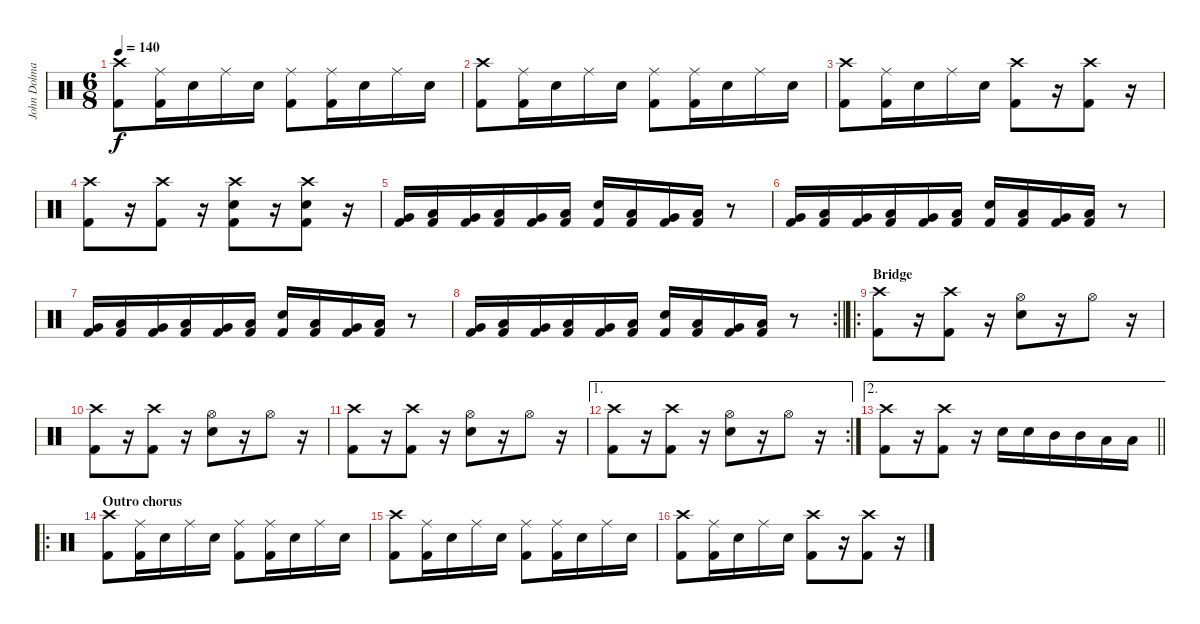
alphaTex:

\track ("John Dolmayan" "John Dolma") {instrument percussion}
\staff {score}
\articulation defaults
\ts (6 8)
\tempo 140
\clef neutral
\ks c
("Crash high (hit)" "Kick (hit) 2").8{dy f} ("Ride (middle)" "Kick (hit) 2").16 "Electric Snare (hit)".16 "Ride (middle)".16 "Electric Snare (hit)".16 ("Ride (middle)" "Kick (hit) 2").8 ("Ride (middle)" "Kick (hit) 2").16 "Electric Snare (hit)".16 "Ride (middle)".16 "Electric Snare (hit)".16 |
("Crash high (hit)" "Kick (hit) 2").8 ("Ride (middle)" "Kick (hit) 2").16 "Electric Snare (hit)".16 "Ride (middle)".16 "Electric Snare (hit)".16 ("Ride (middle)" "Kick (hit) 2").8 ("Ride (middle)" "Kick (hit) 2").16 "Electric Snare (hit)".16 "Ride (middle)".16 "Electric Snare (hit)".16 |
("Crash high (hit)" "Kick (hit) 2").8 ("Ride (middle)" "Kick (hit) 2").16 "Electric Snare (hit)".16 "Ride (middle)".16 "Electric Snare (hit)".16 ("Crash high (hit)" "Kick (hit) 2").8 r.16 ("Crash high (hit)" "Kick (hit) 2").8 r.16 |
("Crash high (hit)" "Kick (hit) 2").8 r.16 ("Crash high (hit)" "Kick (hit) 2").8 r.16 ("Electric Snare (hit)" "Crash high (hit)" "Kick (hit) 2").8 r.16 ("Electric Snare (hit)" "Crash high (hit)" "Kick (hit) 2").8 r.16 |
("Very Low Tom (hit)" "Kick (hit) 2").16 ("Low Tom (hit)" "Kick (hit) 2").16 ("Very Low Tom (hit)" "Kick (hit) 2").16 ("Low Tom (hit)" "Kick (hit) 2").16 ("Very Low Tom (hit)" "Kick (hit) 2").16 ("Low Tom (hit)" "Kick (hit) 2").16 ("Electric Snare (hit)" "Kick (hit) 2").16 ("Low Tom (hit)" "Kick (hit) 2").16 ("Very Low Tom (hit)" "Kick (hit) 2").16 ("Low Tom (hit)" "Kick (hit) 2").16 r.8 |
("Very Low Tom (hit)" "Kick (hit) 2").16 ("Low Tom (hit)" "Kick (hit) 2").16 ("Very Low Tom (hit)" "Kick (hit) 2").16 ("Low Tom (hit)" "Kick (hit) 2").16 ("Very Low Tom (hit)" "Kick (hit) 2").16 ("Low Tom (hit)" "Kick (hit) 2").16 ("Electric Snare (hit)" "Kick (hit) 2").16 ("Low Tom (hit)" "Kick (hit) 2").16 ("Very Low Tom (hit)" "Kick (hit) 2").16 ("Low Tom (hit)" "Kick (hit) 2").16 r.8 |
("Very Low Tom (hit)" "Kick (hit) 2").16 ("Low Tom (hit)" "Kick (hit) 2").16 ("Very Low Tom (hit)" "Kick (hit) 2").16 ("Low Tom (hit)" "Kick (hit) 2").16 ("Very Low Tom (hit)" "Kick (hit) 2").16 ("Low Tom (hit)" "Kick (hit) 2").16 ("Electric Snare (hit)" "Kick (hit) 2").16 ("Low Tom (hit)" "Kick (hit) 2").16 ("Very Low Tom (hit)" "Kick (hit) 2").16 ("Low Tom (hit)" "Kick (hit) 2").16 r.8 |
\rc 2
\barLineRight lightlight
("Very Low Tom (hit)" "Kick (hit) 2").16 ("Low Tom (hit)" "Kick (hit) 2").16 ("Very Low Tom (hit)" "Kick (hit) 2").16 ("Low Tom (hit)" "Kick (hit) 2").16 ("Very Low Tom (hit)" "Kick (hit) 2").16 ("Low Tom (hit)" "Kick (hit) 2").16 ("Electric Snare (hit)" "Kick (hit) 2").16 ("Low Tom (hit)" "Kick (hit) 2").16 ("Very Low Tom (hit)" "Kick (hit) 2").16 ("Low Tom (hit)" "Kick (hit) 2").16 r.8 |
\ro
\section ("" "Bridge")
("Crash high (hit)" "Kick (hit) 2").8 r.16 ("Crash high (hit)" "Kick (hit) 2").8 r.16 ("Hi-Hat (open)" "Electric Snare (hit)").8 r.16 "Hi-Hat (open)".8 r.16 |
("Crash high (hit)" "Kick (hit) 2").8 r.16 ("Crash high (hit)" "Kick (hit) 2").8 r.16 ("Hi-Hat (open)" "Electric Snare (hit)").8 r.16 "Hi-Hat (open)".8 r.16 |
("Crash high (hit)" "Kick (hit) 2").8 r.16 ("Crash high (hit)" "Kick (hit) 2").8 r.16 ("Hi-Hat (open)" "Electric Snare (hit)").8 r.16 "Hi-Hat (open)".8 r.16 |
\ae 1
\rc 2
("Crash high (hit)" "Kick (hit) 2").8 r.16 ("Crash high (hit)" "Kick (hit) 2").8 r.16 ("Hi-Hat (open)" "Electric Snare (hit)").8 r.16 "Hi-Hat (open)".8 r.16 |
\ae 2
\barLineRight lightlight
("Crash high (hit)" "Kick (hit) 2").8 r.16 ("Crash high (hit)" "Kick (hit) 2").8 r.16 "Electric Snare (hit)".16 "Electric Snare (hit)".16 "Mid Tom (hit)".16 "Mid Tom (hit)".16 "Low Tom (hit)".16 "Low Tom (hit)".16 |
\ro
\section ("" "Outro chorus")
("Crash high (hit)" "Kick (hit) 2").8 ("Ride (middle)" "Kick (hit) 2").16 "Electric Snare (hit)".16 "Ride (middle)".16 "Electric Snare (hit)".16 ("Ride (middle)" "Kick (hit) 2").8 ("Ride (middle)" "Kick (hit) 2").16 "Electric Snare (hit)".16 "Ride (middle)".16 "Electric Snare (hit)".16 |
("Crash high (hit)" "Kick (hit) 2").8 ("Ride (middle)" "Kick (hit) 2").16 "Electric Snare (hit)".16 "Ride (middle)".16 "Electric Snare (hit)".16 ("Ride (middle)" "Kick (hit) 2").8 ("Ride (middle)" "Kick (hit) 2").16 "Electric Snare (hit)".16 "Ride (middle)".16 "Electric Snare (hit)".16 |
("Crash high (hit)" "Kick (hit) 2").8 ("Ride (middle)" "Kick (hit) 2").16 "Electric Snare (hit)".16 "Ride (middle)".16 "Electric Snare (hit)".16 ("Crash high (hit)" "Kick (hit) 2").8 r.16 ("Crash high (hit)" "Kick (hit) 2").8 r.16
